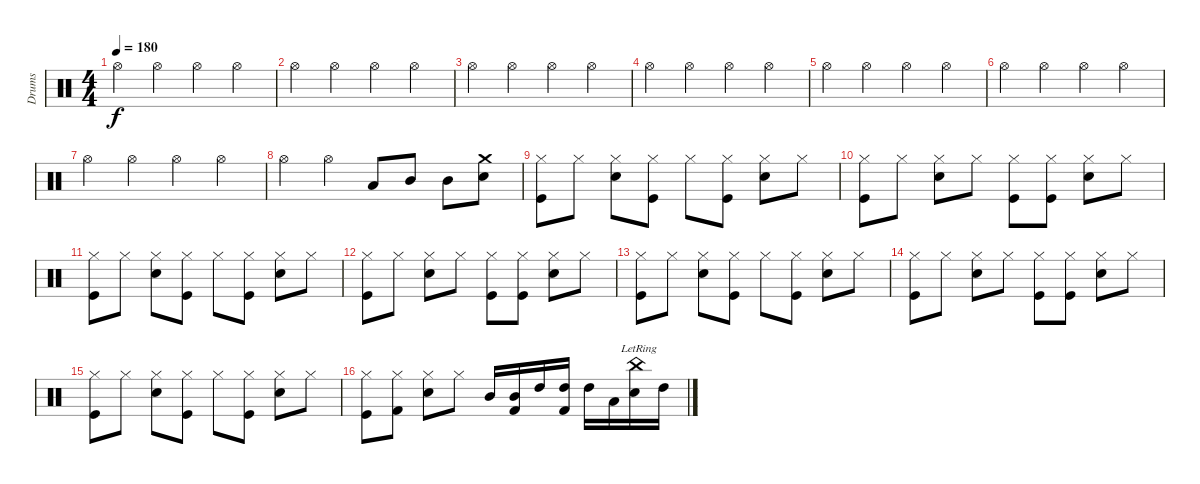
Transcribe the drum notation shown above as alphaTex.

\track ("Drums" "Drums") {instrument percussion}
\staff {score}
\articulation defaults
\ts (4 4)
\tempo 180
\clef neutral
\ks c "Hi-Hat (open)".4{dy f} "Hi-Hat (open)".4 "Hi-Hat (open)".4 "Hi-Hat (open)".4
|
"Hi-Hat (open)".4 "Hi-Hat (open)".4 "Hi-Hat (open)".4 "Hi-Hat (open)".4 |
"Hi-Hat (open)".4 "Hi-Hat (open)".4 "Hi-Hat (open)".4 "Hi-Hat (open)".4 |
"Hi-Hat (open)".4 "Hi-Hat (open)".4 "Hi-Hat (open)".4 "Hi-Hat (open)".4 |
"Hi-Hat (open)".4 "Hi-Hat (open)".4 "Hi-Hat (open)".4 "Hi-Hat (open)".4 |
"Hi-Hat (open)".4 "Hi-Hat (open)".4 "Hi-Hat (open)".4 "Hi-Hat (open)".4 |
"Hi-Hat (open)".4 "Hi-Hat (open)".4 "Hi-Hat (open)".4 "Hi-Hat (open)".4 |
"Hi-Hat (open)".4 "Hi-Hat (open)".4 "Low Tom (hit)".8 "Mid Tom (hit)".8 "Mid Tom (hit)".8 ("Crash medium (hit)" "Electric Snare (hit)").8 |
("Hi-Hat (closed)" "Kick (hit)").8 "Hi-Hat (closed)".8 ("Hi-Hat (closed)" "Snare (hit) 2").8 ("Hi-Hat (closed)" "Kick (hit)").8 "Hi-Hat (closed)".8 ("Hi-Hat (closed)" "Kick (hit)").8 ("Hi-Hat (closed)" "Snare (hit) 2").8 "Hi-Hat (closed)".8 |
("Hi-Hat (closed)" "Kick (hit)").8 "Hi-Hat (closed)".8 ("Hi-Hat (closed)" "Snare (hit) 2").8 "Hi-Hat (closed)".8 ("Hi-Hat (closed)" "Kick (hit)").8 ("Hi-Hat (closed)" "Kick (hit)").8 ("Hi-Hat (closed)" "Snare (hit) 2").8 "Hi-Hat (closed)".8 |
("Hi-Hat (closed)" "Kick (hit)").8 "Hi-Hat (closed)".8 ("Hi-Hat (closed)" "Snare (hit) 2").8 ("Hi-Hat (closed)" "Kick (hit)").8 "Hi-Hat (closed)".8 ("Hi-Hat (closed)" "Kick (hit)").8 ("Hi-Hat (closed)" "Snare (hit) 2").8 "Hi-Hat (closed)".8 |
("Hi-Hat (closed)" "Kick (hit)").8 "Hi-Hat (closed)".8 ("Hi-Hat (closed)" "Snare (hit) 2").8 "Hi-Hat (closed)".8 ("Hi-Hat (closed)" "Kick (hit)").8 ("Hi-Hat (closed)" "Kick (hit)").8 ("Hi-Hat (closed)" "Snare (hit) 2").8 "Hi-Hat (closed)".8 |
("Hi-Hat (closed)" "Kick (hit)").8 "Hi-Hat (closed)".8 ("Hi-Hat (closed)" "Snare (hit) 2").8 ("Hi-Hat (closed)" "Kick (hit)").8 "Hi-Hat (closed)".8 ("Hi-Hat (closed)" "Kick (hit)").8 ("Hi-Hat (closed)" "Snare (hit) 2").8 "Hi-Hat (closed)".8 |
("Hi-Hat (closed)" "Kick (hit)").8 "Hi-Hat (closed)".8 ("Hi-Hat (closed)" "Snare (hit) 2").8 "Hi-Hat (closed)".8 ("Hi-Hat (closed)" "Kick (hit)").8 ("Hi-Hat (closed)" "Kick (hit)").8 ("Hi-Hat (closed)" "Snare (hit) 2").8 "Hi-Hat (closed)".8 |
("Hi-Hat (closed)" "Kick (hit)").8 "Hi-Hat (closed)".8 ("Hi-Hat (closed)" "Snare (hit) 2").8 ("Hi-Hat (closed)" "Kick (hit)").8 "Hi-Hat (closed)".8 ("Hi-Hat (closed)" "Kick (hit)").8 ("Hi-Hat (closed)" "Snare (hit) 2").8 "Hi-Hat (closed)".8 |
("Hi-Hat (closed)" "Kick (hit)").8 ("Hi-Hat (closed)" "Kick (hit) 2").8 ("Hi-Hat (closed)" "Snare (hit) 2").8 "Hi-Hat (closed)".8 "Mid Tom (hit)".16 ("Mid Tom (hit)" "Kick (hit) 2").16 "High Tom (hit)".16 ("High Tom (hit)" "Kick (hit) 2").16 "High Tom (hit)".16 "Low Tom (hit)".16 ("Snare (hit) 2" "China (hit)"{lr}).16 "High Tom (hit)".16
